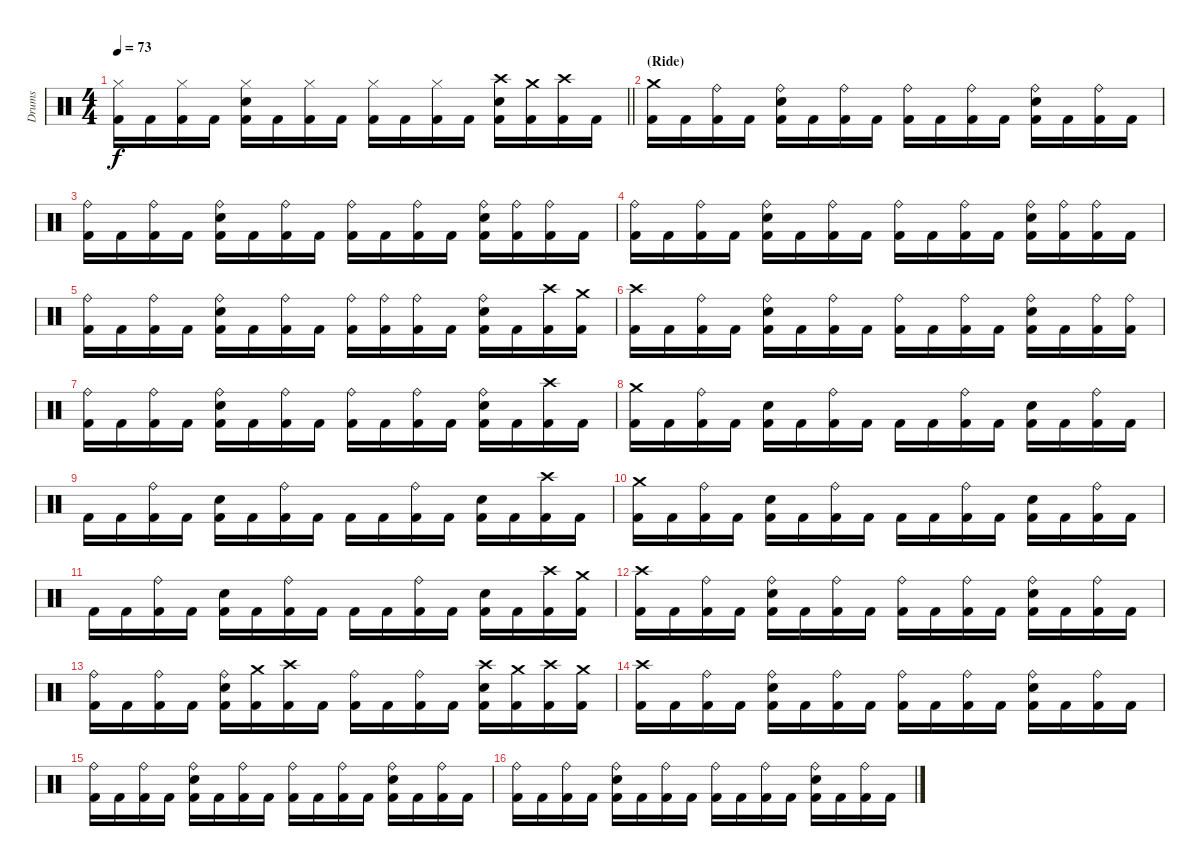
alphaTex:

\track ("Drums" "Drums") {instrument percussion}
\staff {score}
\articulation defaults
\ts (4 4)
\tempo 73
\clef neutral
\barLineRight lightlight
\ks c
("Hi-Hat (closed)" "Kick (hit) 2").16{dy f} "Kick (hit) 2".16 ("Hi-Hat (closed)" "Kick (hit) 2").16 "Kick (hit) 2".16 ("Hi-Hat (closed)" "Electric Snare (hit)" "Kick (hit) 2").16 "Kick (hit) 2".16 ("Hi-Hat (closed)" "Kick (hit) 2").16 "Kick (hit) 2".16 ("Hi-Hat (closed)" "Kick (hit) 2").16 "Kick (hit) 2".16 ("Hi-Hat (closed)" "Kick (hit) 2").16 "Kick (hit) 2".16 ("Crash high (hit)" "Electric Snare (hit)" "Kick (hit) 2").16 ("Crash medium (hit)" "Kick (hit) 2").16 ("Crash high (hit)" "Kick (hit) 2").16 "Kick (hit) 2".16 |
\section ("" "(Ride)")
("Crash medium (hit)" "Kick (hit) 2").16 "Kick (hit) 2".16 ("Ride (bell)" "Kick (hit) 2").16 "Kick (hit) 2".16 ("Ride (bell)" "Electric Snare (hit)" "Kick (hit) 2").16 "Kick (hit) 2".16 ("Ride (bell)" "Kick (hit) 2").16 "Kick (hit) 2".16 ("Ride (bell)" "Kick (hit) 2").16 "Kick (hit) 2".16 ("Ride (bell)" "Kick (hit) 2").16 "Kick (hit) 2".16 ("Ride (bell)" "Electric Snare (hit)" "Kick (hit) 2").16 "Kick (hit) 2".16 ("Ride (bell)" "Kick (hit) 2").16 "Kick (hit) 2".16 |
("Ride (bell)" "Kick (hit) 2").16 "Kick (hit) 2".16 ("Ride (bell)" "Kick (hit) 2").16 "Kick (hit) 2".16 ("Ride (bell)" "Electric Snare (hit)" "Kick (hit) 2").16 "Kick (hit) 2".16 ("Ride (bell)" "Kick (hit) 2").16 "Kick (hit) 2".16 ("Ride (bell)" "Kick (hit) 2").16 "Kick (hit) 2".16 ("Ride (bell)" "Kick (hit) 2").16 "Kick (hit) 2".16 ("Ride (bell)" "Electric Snare (hit)" "Kick (hit) 2").16 ("Ride (bell)" "Kick (hit) 2").16 ("Ride (bell)" "Kick (hit) 2").16 "Kick (hit) 2".16 |
("Ride (bell)" "Kick (hit) 2").16 "Kick (hit) 2".16 ("Ride (bell)" "Kick (hit) 2").16 "Kick (hit) 2".16 ("Ride (bell)" "Electric Snare (hit)" "Kick (hit) 2").16 "Kick (hit) 2".16 ("Ride (bell)" "Kick (hit) 2").16 "Kick (hit) 2".16 ("Ride (bell)" "Kick (hit) 2").16 "Kick (hit) 2".16 ("Ride (bell)" "Kick (hit) 2").16 "Kick (hit) 2".16 ("Ride (bell)" "Electric Snare (hit)" "Kick (hit) 2").16 ("Ride (bell)" "Kick (hit) 2").16 ("Ride (bell)" "Kick (hit) 2").16 "Kick (hit) 2".16 |
("Ride (bell)" "Kick (hit) 2").16 "Kick (hit) 2".16 ("Ride (bell)" "Kick (hit) 2").16 "Kick (hit) 2".16 ("Ride (bell)" "Electric Snare (hit)" "Kick (hit) 2").16 "Kick (hit) 2".16 ("Ride (bell)" "Kick (hit) 2").16 "Kick (hit) 2".16 ("Ride (bell)" "Kick (hit) 2").16 ("Ride (bell)" "Kick (hit) 2").16 ("Ride (bell)" "Kick (hit) 2").16 "Kick (hit) 2".16 ("Ride (bell)" "Electric Snare (hit)" "Kick (hit) 2").16 "Kick (hit) 2".16 ("Crash high (hit)" "Kick (hit) 2").16 ("Crash medium (hit)" "Kick (hit) 2").16 |
("Crash high (hit)" "Kick (hit) 2").16 "Kick (hit) 2".16 ("Ride (bell)" "Kick (hit) 2").16 "Kick (hit) 2".16 ("Ride (bell)" "Electric Snare (hit)" "Kick (hit) 2").16 "Kick (hit) 2".16 ("Ride (bell)" "Kick (hit) 2").16 "Kick (hit) 2".16 ("Ride (bell)" "Kick (hit) 2").16 "Kick (hit) 2".16 ("Ride (bell)" "Kick (hit) 2").16 "Kick (hit) 2".16 ("Ride (bell)" "Electric Snare (hit)" "Kick (hit) 2").16 "Kick (hit) 2".16 ("Ride (bell)" "Kick (hit) 2").16 ("Ride (bell)" "Kick (hit) 2").16 |
("Ride (bell)" "Kick (hit) 2").16 "Kick (hit) 2".16 ("Ride (bell)" "Kick (hit) 2").16 "Kick (hit) 2".16 ("Ride (bell)" "Electric Snare (hit)" "Kick (hit) 2").16 "Kick (hit) 2".16 ("Ride (bell)" "Kick (hit) 2").16 "Kick (hit) 2".16 ("Ride (bell)" "Kick (hit) 2").16 "Kick (hit) 2".16 ("Ride (bell)" "Kick (hit) 2").16 "Kick (hit) 2".16 ("Ride (bell)" "Electric Snare (hit)" "Kick (hit) 2").16 "Kick (hit) 2".16 ("Crash high (hit)" "Kick (hit) 2").16 "Kick (hit) 2".16 |
("Crash medium (hit)" "Kick (hit) 2").16 "Kick (hit) 2".16 ("Ride (bell)" "Kick (hit) 2").16 "Kick (hit) 2".16 ("Electric Snare (hit)" "Kick (hit) 2").16 "Kick (hit) 2".16 ("Ride (bell)" "Kick (hit) 2").16 "Kick (hit) 2".16 "Kick (hit) 2".16 "Kick (hit) 2".16 ("Ride (bell)" "Kick (hit) 2").16 "Kick (hit) 2".16 ("Electric Snare (hit)" "Kick (hit) 2").16 "Kick (hit) 2".16 ("Ride (bell)" "Kick (hit) 2").16 "Kick (hit) 2".16 |
"Kick (hit) 2".16 "Kick (hit) 2".16 ("Ride (bell)" "Kick (hit) 2").16 "Kick (hit) 2".16 ("Electric Snare (hit)" "Kick (hit) 2").16 "Kick (hit) 2".16 ("Ride (bell)" "Kick (hit) 2").16 "Kick (hit) 2".16 "Kick (hit) 2".16 "Kick (hit) 2".16 ("Ride (bell)" "Kick (hit) 2").16 "Kick (hit) 2".16 ("Electric Snare (hit)" "Kick (hit) 2").16 "Kick (hit) 2".16 ("Crash high (hit)" "Kick (hit) 2").16 "Kick (hit) 2".16 |
("Crash medium (hit)" "Kick (hit) 2").16 "Kick (hit) 2".16 ("Ride (bell)" "Kick (hit) 2").16 "Kick (hit) 2".16 ("Electric Snare (hit)" "Kick (hit) 2").16 "Kick (hit) 2".16 ("Ride (bell)" "Kick (hit) 2").16 "Kick (hit) 2".16 "Kick (hit) 2".16 "Kick (hit) 2".16 ("Ride (bell)" "Kick (hit) 2").16 "Kick (hit) 2".16 ("Electric Snare (hit)" "Kick (hit) 2").16 "Kick (hit) 2".16 ("Ride (bell)" "Kick (hit) 2").16 "Kick (hit) 2".16 |
"Kick (hit) 2".16 "Kick (hit) 2".16 ("Ride (bell)" "Kick (hit) 2").16 "Kick (hit) 2".16 ("Electric Snare (hit)" "Kick (hit) 2").16 "Kick (hit) 2".16 ("Ride (bell)" "Kick (hit) 2").16 "Kick (hit) 2".16 "Kick (hit) 2".16 "Kick (hit) 2".16 ("Ride (bell)" "Kick (hit) 2").16 "Kick (hit) 2".16 ("Electric Snare (hit)" "Kick (hit) 2").16 "Kick (hit) 2".16 ("Crash high (hit)" "Kick (hit) 2").16 ("Crash medium (hit)" "Kick (hit) 2").16 |
("Crash high (hit)" "Kick (hit) 2").16 "Kick (hit) 2".16 ("Ride (bell)" "Kick (hit) 2").16 "Kick (hit) 2".16 ("Ride (bell)" "Electric Snare (hit)" "Kick (hit) 2").16 "Kick (hit) 2".16 ("Ride (bell)" "Kick (hit) 2").16 "Kick (hit) 2".16 ("Ride (bell)" "Kick (hit) 2").16 "Kick (hit) 2".16 ("Ride (bell)" "Kick (hit) 2").16 "Kick (hit) 2".16 ("Ride (bell)" "Electric Snare (hit)" "Kick (hit) 2").16 "Kick (hit) 2".16 ("Ride (bell)" "Kick (hit) 2").16 "Kick (hit) 2".16 |
("Ride (bell)" "Kick (hit) 2").16 "Kick (hit) 2".16 ("Ride (bell)" "Kick (hit) 2").16 "Kick (hit) 2".16 ("Ride (bell)" "Electric Snare (hit)" "Kick (hit) 2").16 ("Crash medium (hit)" "Kick (hit) 2").16 ("Crash high (hit)" "Kick (hit) 2").16 "Kick (hit) 2".16 ("Ride (bell)" "Kick (hit) 2").16 "Kick (hit) 2".16 ("Ride (bell)" "Kick (hit) 2").16 "Kick (hit) 2".16 ("Crash high (hit)" "Electric Snare (hit)" "Kick (hit) 2").16 ("Crash medium (hit)" "Kick (hit) 2").16 ("Crash high (hit)" "Kick (hit) 2").16 ("Crash medium (hit)" "Kick (hit) 2").16 |
("Crash high (hit)" "Kick (hit) 2").16 "Kick (hit) 2".16 ("Ride (bell)" "Kick (hit) 2").16 "Kick (hit) 2".16 ("Ride (bell)" "Electric Snare (hit)" "Kick (hit) 2").16 "Kick (hit) 2".16 ("Ride (bell)" "Kick (hit) 2").16 "Kick (hit) 2".16 ("Ride (bell)" "Kick (hit) 2").16 "Kick (hit) 2".16 ("Ride (bell)" "Kick (hit) 2").16 "Kick (hit) 2".16 ("Ride (bell)" "Electric Snare (hit)" "Kick (hit) 2").16 "Kick (hit) 2".16 ("Ride (bell)" "Kick (hit) 2").16 "Kick (hit) 2".16 |
("Ride (bell)" "Kick (hit) 2").16 "Kick (hit) 2".16 ("Ride (bell)" "Kick (hit) 2").16 "Kick (hit) 2".16 ("Ride (bell)" "Electric Snare (hit)" "Kick (hit) 2").16 "Kick (hit) 2".16 ("Ride (bell)" "Kick (hit) 2").16 "Kick (hit) 2".16 ("Ride (bell)" "Kick (hit) 2").16 "Kick (hit) 2".16 ("Ride (bell)" "Kick (hit) 2").16 "Kick (hit) 2".16 ("Ride (bell)" "Electric Snare (hit)" "Kick (hit) 2").16 "Kick (hit) 2".16 ("Ride (bell)" "Kick (hit) 2").16 "Kick (hit) 2".16 |
("Ride (bell)" "Kick (hit) 2").16 "Kick (hit) 2".16 ("Ride (bell)" "Kick (hit) 2").16 "Kick (hit) 2".16 ("Ride (bell)" "Electric Snare (hit)" "Kick (hit) 2").16 "Kick (hit) 2".16 ("Ride (bell)" "Kick (hit) 2").16 "Kick (hit) 2".16 ("Ride (bell)" "Kick (hit) 2").16 "Kick (hit) 2".16 ("Ride (bell)" "Kick (hit) 2").16 "Kick (hit) 2".16 ("Ride (bell)" "Electric Snare (hit)" "Kick (hit) 2").16 "Kick (hit) 2".16 ("Ride (bell)" "Kick (hit) 2").16 "Kick (hit) 2".16
